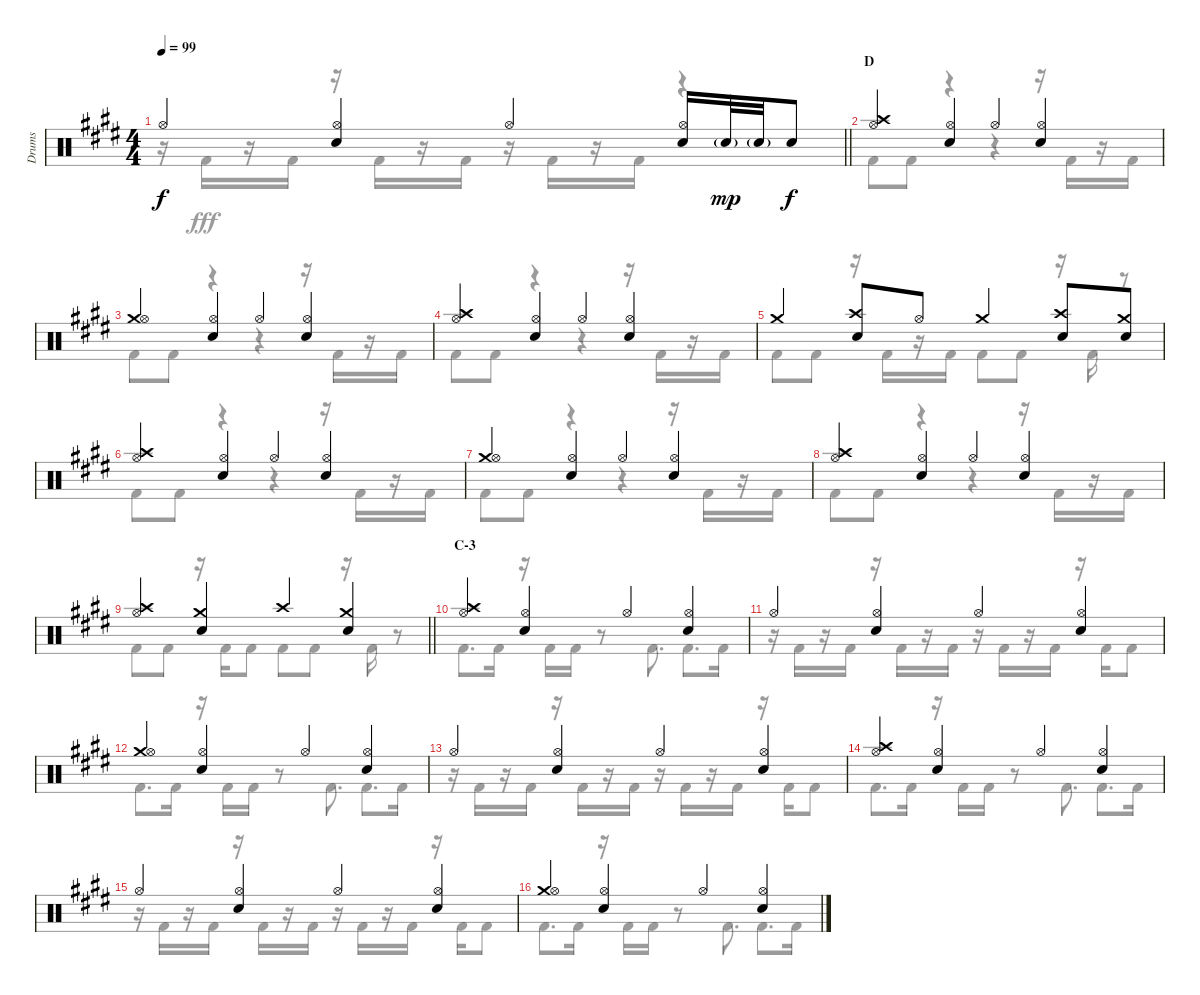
\track ("Drums" "Drums") {instrument percussion}
\staff {score}
\articulation defaults
\voice
\ts (4 4)
\tempo 99
\clef neutral
\barLineRight lightlight
\ks e "Hi-Hat (open)".4{dy f}
("Hi-Hat (open)" "Snare (hit) 2").4 "Hi-Hat (open)".4 ("Hi-Hat (open)" "Snare (hit) 2").16 "Snare (hit) 2"{g}.32{dy mp} "Snare (hit) 2"{g}.32 "Snare (hit) 2".8{dy f} |
\section ("" "D")
("Crash high (hit)" "Hi-Hat (open)").4 ("Hi-Hat (open)" "Snare (hit) 2").4 "Hi-Hat (open)".4 ("Hi-Hat (open)" "Snare (hit) 2").4 |
("Crash medium (hit)" "Hi-Hat (open)").4 ("Hi-Hat (open)" "Snare (hit) 2").4 "Hi-Hat (open)".4 ("Hi-Hat (open)" "Snare (hit) 2").4 |
("Crash high (hit)" "Hi-Hat (open)").4 ("Hi-Hat (open)" "Snare (hit) 2").4 "Hi-Hat (open)".4 ("Hi-Hat (open)" "Snare (hit) 2").4 |
"Crash medium (hit)".4 ("Crash high (hit)" "Snare (hit) 2").8 "Hi-Hat (open)".8 "Crash medium (hit)".4 ("Crash high (hit)" "Snare (hit) 2").8 ("Crash medium (hit)" "Snare (hit) 2").8 |
("Crash high (hit)" "Hi-Hat (open)").4 ("Hi-Hat (open)" "Snare (hit) 2").4 "Hi-Hat (open)".4 ("Hi-Hat (open)" "Snare (hit) 2").4 |
("Crash medium (hit)" "Hi-Hat (open)").4 ("Hi-Hat (open)" "Snare (hit) 2").4 "Hi-Hat (open)".4 ("Hi-Hat (open)" "Snare (hit) 2").4 |
("Crash high (hit)" "Hi-Hat (open)").4 ("Hi-Hat (open)" "Snare (hit) 2").4 "Hi-Hat (open)".4 ("Hi-Hat (open)" "Snare (hit) 2").4 |
\barLineRight lightlight
("Crash high (hit)" "Hi-Hat (open)").4 ("Crash medium (hit)" "Snare (hit) 2").4 "Crash high (hit)".4 ("Crash medium (hit)" "Snare (hit) 2").4 |
\section ("" "C-3")
("Crash high (hit)" "Hi-Hat (open)").4 ("Hi-Hat (open)" "Snare (hit) 2").4 "Hi-Hat (open)".4 ("Hi-Hat (open)" "Snare (hit) 2").4 |
"Hi-Hat (open)".4 ("Hi-Hat (open)" "Snare (hit) 2").4 "Hi-Hat (open)".4 ("Hi-Hat (open)" "Snare (hit) 2").4 |
("Crash medium (hit)" "Hi-Hat (open)").4 ("Hi-Hat (open)" "Snare (hit) 2").4 "Hi-Hat (open)".4 ("Hi-Hat (open)" "Snare (hit) 2").4 |
"Hi-Hat (open)".4 ("Hi-Hat (open)" "Snare (hit) 2").4 "Hi-Hat (open)".4 ("Hi-Hat (open)" "Snare (hit) 2").4 |
("Crash high (hit)" "Hi-Hat (open)").4 ("Hi-Hat (open)" "Snare (hit) 2").4 "Hi-Hat (open)".4 ("Hi-Hat (open)" "Snare (hit) 2").4 |
"Hi-Hat (open)".4 ("Hi-Hat (open)" "Snare (hit) 2").4 "Hi-Hat (open)".4 ("Hi-Hat (open)" "Snare (hit) 2").4 |
("Crash medium (hit)" "Hi-Hat (open)").4 ("Hi-Hat (open)" "Snare (hit) 2").4 "Hi-Hat (open)".4 ("Hi-Hat (open)" "Snare (hit) 2").4
\voice
\clef neutral
\ottava regular
\simile none
\barLineRight lightlight
\ks e
r.16{dy fff} "Kick (hit) 2".16 r.16 "Kick (hit) 2".16 r.16 "Kick (hit) 2".16 r.16 "Kick (hit) 2".16 r.16 "Kick (hit) 2".16 r.16 "Kick (hit) 2".16 r.4 |
"Kick (hit) 2".8 "Kick (hit) 2".8 r.4 r.4 r.16 "Kick (hit) 2".16 r.16 "Kick (hit) 2".16 |
"Kick (hit) 2".8 "Kick (hit) 2".8 r.4 r.4 r.16 "Kick (hit) 2".16 r.16 "Kick (hit) 2".16 |
"Kick (hit) 2".8 "Kick (hit) 2".8 r.4 r.4 r.16 "Kick (hit) 2".16 r.16 "Kick (hit) 2".16 |
"Kick (hit) 2".8 "Kick (hit) 2".8 r.16 "Kick (hit) 2".16 r.16 "Kick (hit) 2".16 "Kick (hit) 2".8 "Kick (hit) 2".8 r.16 "Kick (hit) 2".16 r.8 |
"Kick (hit) 2".8 "Kick (hit) 2".8 r.4 r.4 r.16 "Kick (hit) 2".16 r.16 "Kick (hit) 2".16 |
"Kick (hit) 2".8 "Kick (hit) 2".8 r.4 r.4 r.16 "Kick (hit) 2".16 r.16 "Kick (hit) 2".16 |
"Kick (hit) 2".8 "Kick (hit) 2".8 r.4 r.4 r.16 "Kick (hit) 2".16 r.16 "Kick (hit) 2".16 |
\barLineRight lightlight "Kick (hit) 2".8 "Kick (hit) 2".8
r.16 "Kick (hit) 2".16 "Kick (hit) 2".8 "Kick (hit) 2".8 "Kick (hit) 2".8 r.16 "Kick (hit) 2".16 r.8 |
"Kick (hit) 2".8{d} "Kick (hit) 2".16 r.16 "Kick (hit) 2".16 "Kick (hit) 2".16 r.8 "Kick (hit) 2".8{d} "Kick (hit) 2".8{d} "Kick (hit) 2".16 |
r.16 "Kick (hit) 2".16 r.16 "Kick (hit) 2".16 r.16 "Kick (hit) 2".16 r.16 "Kick (hit) 2".16 r.16 "Kick (hit) 2".16 r.16 "Kick (hit) 2".16 r.16 "Kick (hit) 2".16 "Kick (hit) 2".8 |
"Kick (hit) 2".8{d} "Kick (hit) 2".16 r.16 "Kick (hit) 2".16 "Kick (hit) 2".16 r.8 "Kick (hit) 2".8{d} "Kick (hit) 2".8{d} "Kick (hit) 2".16 |
r.16 "Kick (hit) 2".16 r.16 "Kick (hit) 2".16 r.16 "Kick (hit) 2".16 r.16 "Kick (hit) 2".16 r.16 "Kick (hit) 2".16 r.16 "Kick (hit) 2".16 r.16 "Kick (hit) 2".16 "Kick (hit) 2".8 |
"Kick (hit) 2".8{d} "Kick (hit) 2".16 r.16 "Kick (hit) 2".16 "Kick (hit) 2".16 r.8 "Kick (hit) 2".8{d} "Kick (hit) 2".8{d} "Kick (hit) 2".16 |
r.16 "Kick (hit) 2".16 r.16 "Kick (hit) 2".16 r.16 "Kick (hit) 2".16 r.16 "Kick (hit) 2".16 r.16 "Kick (hit) 2".16 r.16 "Kick (hit) 2".16 r.16 "Kick (hit) 2".16 "Kick (hit) 2".8 |
"Kick (hit) 2".8{d} "Kick (hit) 2".16 r.16 "Kick (hit) 2".16 "Kick (hit) 2".16 r.8 "Kick (hit) 2".8{d} "Kick (hit) 2".8{d} "Kick (hit) 2".16
